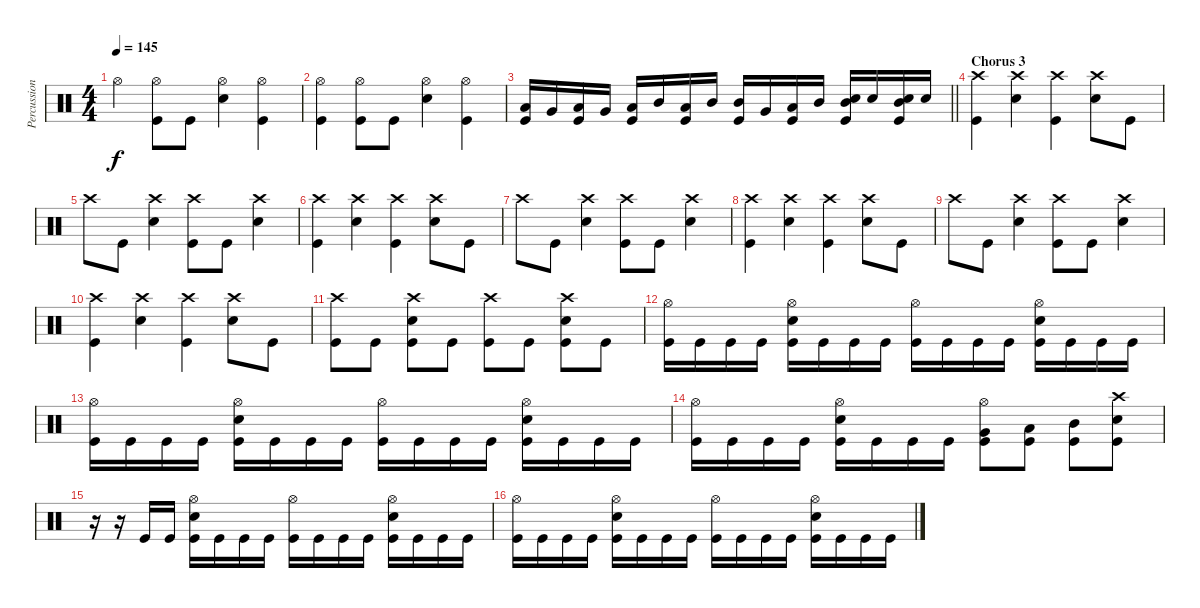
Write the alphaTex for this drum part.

\track ("Percussion" "Percussion") {instrument percussion}
\staff {score}
\articulation defaults
\ts (4 4)
\tempo 145
\clef neutral
\ks c "Hi-Hat (open)".4{dy f}
("Hi-Hat (open)" "Kick (hit)").8 "Kick (hit)".8 ("Hi-Hat (open)" "Snare (hit) 2").4 ("Hi-Hat (open)" "Kick (hit)").4 |
("Hi-Hat (open)" "Kick (hit)").4 ("Hi-Hat (open)" "Kick (hit)").8 "Kick (hit)".8 ("Hi-Hat (open)" "Snare (hit) 2").4 ("Hi-Hat (open)" "Kick (hit)").4 |
\barLineRight lightlight
("Low Floor Tom (hit)" "Kick (hit)").16 "Very Low Tom (hit)".16 ("Low Tom (hit)" "Kick (hit)").16 "Very Low Tom (hit)".16 ("Low Tom (hit)" "Kick (hit)").16 "Mid Tom (hit)".16 ("Low Tom (hit)" "Kick (hit)").16 "Mid Tom (hit)".16 ("Mid Tom (hit)" "Kick (hit)").16 "Very Low Tom (hit)".16 ("Low Tom (hit)" "Kick (hit)").16 "Mid Tom (hit)".16 ("Mid Tom (hit)" "Snare (hit) 2" "Kick (hit)").16 "Snare (hit) 2".16 ("Mid Tom (hit)" "Snare (hit) 2" "Kick (hit)").16 "Snare (hit) 2".16 |
\section ("" "Chorus 3")
("Crash high (hit)" "Kick (hit)").4 ("Crash high (hit)" "Snare (hit) 2").4 ("Crash high (hit)" "Kick (hit)").4 ("Crash high (hit)" "Snare (hit) 2").8 "Kick (hit)".8 |
"Crash high (hit)".8 "Kick (hit)".8 ("Crash high (hit)" "Snare (hit) 2").4 ("Crash high (hit)" "Kick (hit)").8 "Kick (hit)".8 ("Crash high (hit)" "Snare (hit) 2").4 |
("Crash high (hit)" "Kick (hit)").4 ("Crash high (hit)" "Snare (hit) 2").4 ("Crash high (hit)" "Kick (hit)").4 ("Crash high (hit)" "Snare (hit) 2").8 "Kick (hit)".8 |
"Crash high (hit)".8 "Kick (hit)".8 ("Crash high (hit)" "Snare (hit) 2").4 ("Crash high (hit)" "Kick (hit)").8 "Kick (hit)".8 ("Crash high (hit)" "Snare (hit) 2").4 |
("Crash high (hit)" "Kick (hit)").4 ("Crash high (hit)" "Snare (hit) 2").4 ("Crash high (hit)" "Kick (hit)").4 ("Crash high (hit)" "Snare (hit) 2").8 "Kick (hit)".8 |
"Crash high (hit)".8 "Kick (hit)".8 ("Crash high (hit)" "Snare (hit) 2").4 ("Crash high (hit)" "Kick (hit)").8 "Kick (hit)".8 ("Crash high (hit)" "Snare (hit) 2").4 |
("Crash high (hit)" "Kick (hit)").4 ("Crash high (hit)" "Snare (hit) 2").4 ("Crash high (hit)" "Kick (hit)").4 ("Crash high (hit)" "Snare (hit) 2").8 "Kick (hit)".8 |
("Crash high (hit)" "Kick (hit)").8 "Kick (hit)".8 ("Crash high (hit)" "Snare (hit) 2" "Kick (hit)").8 "Kick (hit)".8 ("Crash high (hit)" "Kick (hit)").8 "Kick (hit)".8 ("Crash high (hit)" "Snare (hit) 2" "Kick (hit)").8 "Kick (hit)".8 |
("Hi-Hat (open)" "Kick (hit)").16 "Kick (hit)".16 "Kick (hit)".16 "Kick (hit)".16 ("Hi-Hat (open)" "Snare (hit) 2" "Kick (hit)").16 "Kick (hit)".16 "Kick (hit)".16 "Kick (hit)".16 ("Hi-Hat (open)" "Kick (hit)").16 "Kick (hit)".16 "Kick (hit)".16 "Kick (hit)".16 ("Hi-Hat (open)" "Snare (hit) 2" "Kick (hit)").16 "Kick (hit)".16 "Kick (hit)".16 "Kick (hit)".16 |
("Hi-Hat (open)" "Kick (hit)").16 "Kick (hit)".16 "Kick (hit)".16 "Kick (hit)".16 ("Hi-Hat (open)" "Snare (hit) 2" "Kick (hit)").16 "Kick (hit)".16 "Kick (hit)".16 "Kick (hit)".16 ("Hi-Hat (open)" "Kick (hit)").16 "Kick (hit)".16 "Kick (hit)".16 "Kick (hit)".16 ("Hi-Hat (open)" "Snare (hit) 2" "Kick (hit)").16 "Kick (hit)".16 "Kick (hit)".16 "Kick (hit)".16 |
("Hi-Hat (open)" "Kick (hit)").16 "Kick (hit)".16 "Kick (hit)".16 "Kick (hit)".16 ("Hi-Hat (open)" "Snare (hit) 2" "Kick (hit)").16 "Kick (hit)".16 "Kick (hit)".16 "Kick (hit)".16 ("Hi-Hat (open)" "Very Low Tom (hit)" "Kick (hit)").8 ("Low Tom (hit)" "Kick (hit)").8 ("Mid Tom (hit)" "Kick (hit)").8 ("Crash high (hit)" "Snare (hit) 2" "Kick (hit)").8 |
r.16 r.16 "Kick (hit)".16 "Kick (hit)".16 ("Hi-Hat (open)" "Snare (hit) 2" "Kick (hit)").16 "Kick (hit)".16 "Kick (hit)".16 "Kick (hit)".16 ("Hi-Hat (open)" "Kick (hit)").16 "Kick (hit)".16 "Kick (hit)".16 "Kick (hit)".16 ("Hi-Hat (open)" "Snare (hit) 2" "Kick (hit)").16 "Kick (hit)".16 "Kick (hit)".16 "Kick (hit)".16 |
("Hi-Hat (open)" "Kick (hit)").16 "Kick (hit)".16 "Kick (hit)".16 "Kick (hit)".16 ("Hi-Hat (open)" "Snare (hit) 2" "Kick (hit)").16 "Kick (hit)".16 "Kick (hit)".16 "Kick (hit)".16 ("Hi-Hat (open)" "Kick (hit)").16 "Kick (hit)".16 "Kick (hit)".16 "Kick (hit)".16 ("Hi-Hat (open)" "Snare (hit) 2" "Kick (hit)").16 "Kick (hit)".16 "Kick (hit)".16 "Kick (hit)".16
